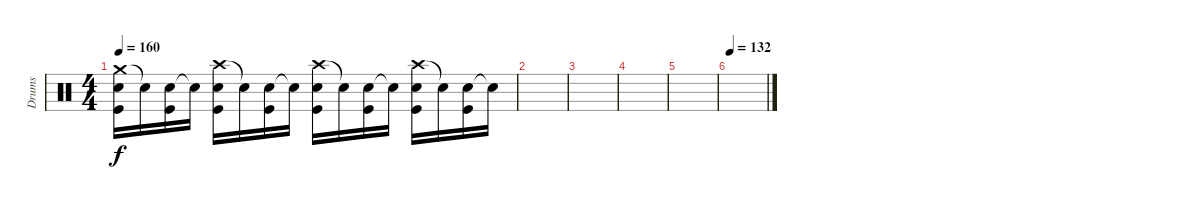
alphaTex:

\track ("Drums" "Drums") {instrument percussion}
\staff {score}
\articulation defaults
\ts (4 4)
\tempo 160
\clef neutral
\ks c
("Crash medium (hit)" "Electric Snare (hit)" "Kick (hit)").16{dy f} "Snare (hit)"{t}.16 ("Electric Snare (hit)" "Kick (hit)").16 "Snare (hit)"{t}.16 ("Crash high (hit)" "Electric Snare (hit)" "Kick (hit)").16 "Snare (hit)"{t}.16 ("Electric Snare (hit)" "Kick (hit)").16 "Snare (hit)"{t}.16 ("Crash high (hit)" "Electric Snare (hit)" "Kick (hit)").16 "Snare (hit)"{t}.16 ("Electric Snare (hit)" "Kick (hit)").16 "Snare (hit)"{t}.16 ("Crash high (hit)" "Electric Snare (hit)" "Kick (hit)").16 "Snare (hit)"{t}.16 ("Electric Snare (hit)" "Kick (hit)").16 "Snare (hit)"{t}.16 |
|
|
|
|
\tempo 132
